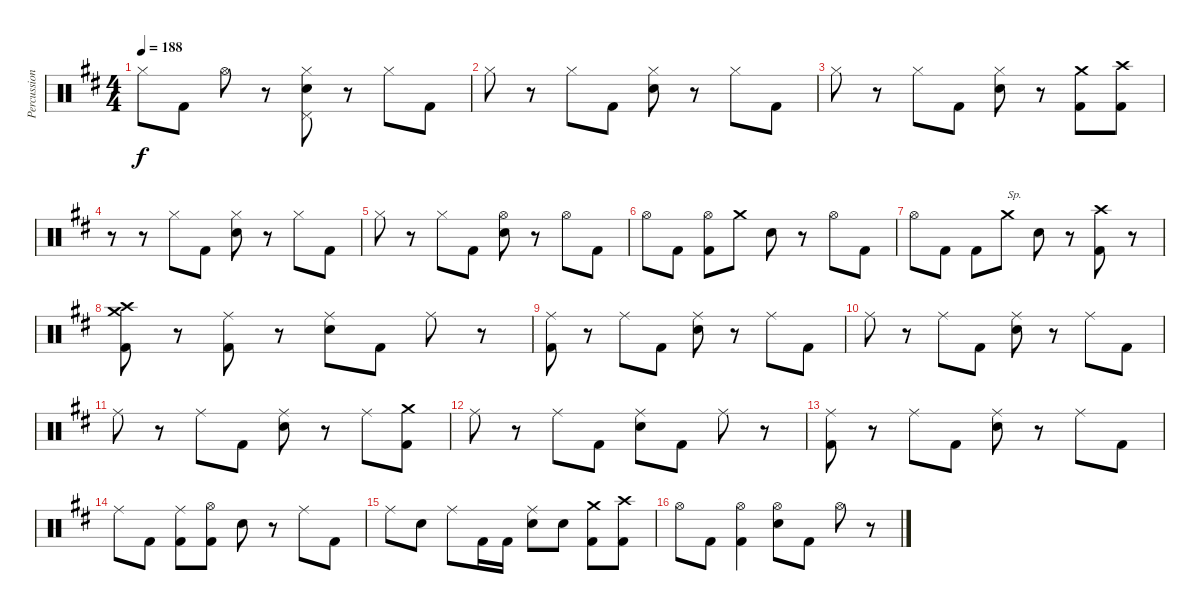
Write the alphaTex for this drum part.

\track ("Percussion" "Percussion") {instrument percussion}
\staff {score}
\articulation defaults
\ts (4 4)
\tempo 188
\clef neutral
\ks bminor "Hi-Hat (closed)".8{dy f} "Kick (hit) 2".8 "Hi-Hat (open)".8
r.8 ("Hi-Hat (closed)" "Electric Snare (hit)" "Pedal Hi-Hat (hit)").8 r.8 "Hi-Hat (closed)".8 "Kick (hit) 2".8 |
"Hi-Hat (closed)".8 r.8 "Hi-Hat (closed)".8 "Kick (hit) 2".8 ("Hi-Hat (closed)" "Electric Snare (hit)").8 r.8 "Hi-Hat (closed)".8 "Kick (hit) 2".8 |
"Hi-Hat (closed)".8 r.8 "Hi-Hat (closed)".8 "Kick (hit) 2".8 ("Hi-Hat (closed)" "Electric Snare (hit)").8 r.8 ("Kick (hit) 2" "Crash medium (hit)").8 ("Crash high (hit)" "Kick (hit) 2").8 |
r.8{volume 16} r.8 "Hi-Hat (closed)".8 "Kick (hit) 2".8 ("Electric Snare (hit)" "Hi-Hat (closed)").8 r.8 "Hi-Hat (closed)".8 "Kick (hit) 2".8 |
"Hi-Hat (closed)".8 r.8 "Hi-Hat (closed)".8 "Kick (hit) 2".8 ("Hi-Hat (open)" "Electric Snare (hit)").8 r.8 "Hi-Hat (open)".8 "Kick (hit) 2".8 |
"Hi-Hat (open)".8 "Kick (hit) 2".8 ("Hi-Hat (open)" "Kick (hit) 2").8 "Crash medium (hit)".8 "Electric Snare (hit)".8 r.8 "Hi-Hat (open)".8 "Kick (hit) 2".8 |
"Hi-Hat (open)".8 "Kick (hit) 2".8 "Kick (hit) 2".8 "Crash medium (hit)".8{txt "Sp."} "Electric Snare (hit)".8 r.8 ("Crash high (hit)" "Kick (hit) 2").8 r.8 |
("Crash medium (hit)" "Kick (hit) 2" "Crash high (hit)").8 r.8 ("Ride (middle)" "Kick (hit) 2").8 r.8 ("Ride (middle)" "Electric Snare (hit)").8 "Kick (hit) 2".8 "Ride (middle)".8 r.8 |
("Ride (middle)" "Kick (hit) 2").8 r.8 "Ride (middle)".8 "Kick (hit) 2".8 ("Ride (middle)" "Electric Snare (hit)").8 r.8 "Ride (middle)".8 "Kick (hit) 2".8 |
"Ride (middle)".8 r.8 "Ride (middle)".8 "Kick (hit) 2".8 ("Ride (middle)" "Electric Snare (hit)").8 r.8 "Ride (middle)".8 "Kick (hit) 2".8 |
"Ride (middle)".8 r.8 "Ride (middle)".8 "Kick (hit) 2".8 ("Ride (middle)" "Electric Snare (hit)").8 r.8 "Ride (middle)".8 ("Kick (hit) 2" "Crash medium (hit)").8 |
"Ride (middle)".8 r.8 "Ride (middle)".8 "Kick (hit) 2".8 ("Ride (middle)" "Electric Snare (hit)").8 "Kick (hit) 2".8 "Ride (middle)".8 r.8 |
("Ride (middle)" "Kick (hit) 2").8 r.8 "Ride (middle)".8 "Kick (hit) 2".8 ("Ride (middle)" "Electric Snare (hit)").8 r.8 "Ride (middle)".8 "Kick (hit) 2".8 |
"Ride (middle)".8 "Kick (hit) 2".8 ("Ride (middle)" "Kick (hit) 2").8 ("Kick (hit) 2" "Hi-Hat (open)").8 "Electric Snare (hit)".8 r.8 "Ride (middle)".8 "Kick (hit) 2".8 |
"Ride (middle)".8 "Electric Snare (hit)".8 "Ride (middle)".8 "Kick (hit) 2".16 "Kick (hit) 2".16 ("Ride (middle)" "Electric Snare (hit)").8 "Electric Snare (hit)".8 ("Crash medium (hit)" "Kick (hit) 2").8 ("Crash high (hit)" "Kick (hit) 2").8 |
"Hi-Hat (open)".8 "Kick (hit) 2".8 ("Kick (hit) 2" "Hi-Hat (open)").4 ("Electric Snare (hit)" "Hi-Hat (open)").8 "Kick (hit) 2".8 "Hi-Hat (open)".8 r.8
